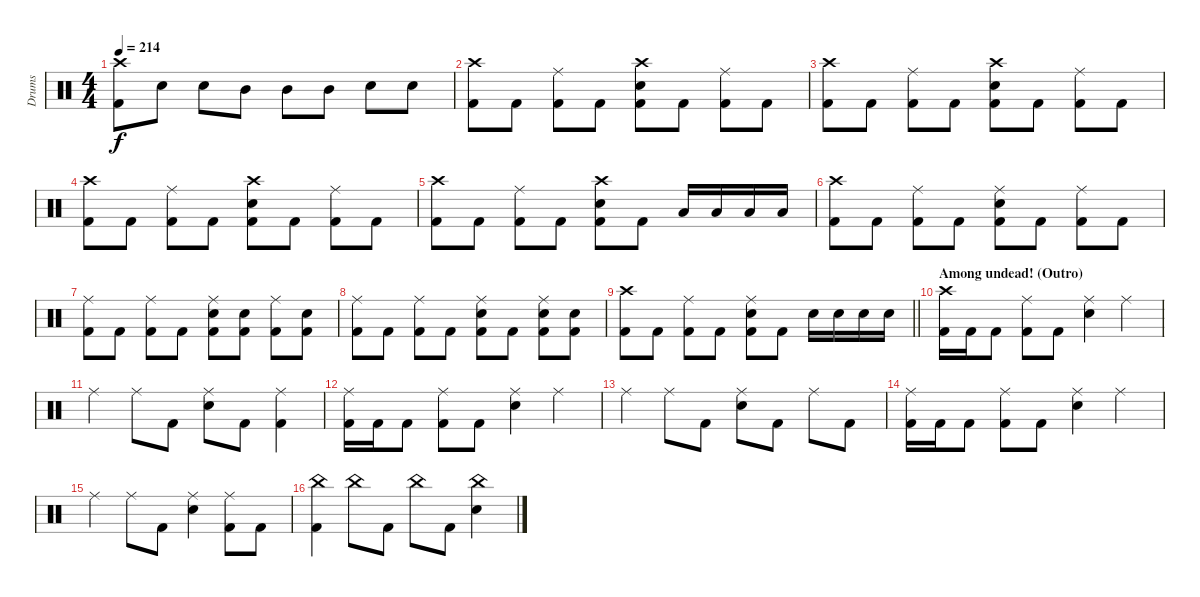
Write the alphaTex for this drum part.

\track ("Drums" "Drums") {instrument percussion}
\staff {score}
\articulation defaults
\ts (4 4)
\tempo 214
\clef neutral
\ks c
("Crash high (hit)" "Kick (hit) 2").8{dy f} "Snare (hit) 2".8 "Snare (hit) 2".8 "Mid Tom (hit)".8 "Mid Tom (hit)".8 "Mid Tom (hit)".8 "Snare (hit) 2".8 "Snare (hit) 2".8 |
("Crash high (hit)" "Kick (hit) 2").8 "Kick (hit) 2".8 ("Ride (middle)" "Kick (hit) 2").8 "Kick (hit) 2".8 ("Crash high (hit)" "Snare (hit) 2" "Kick (hit) 2").8 "Kick (hit) 2".8 ("Ride (middle)" "Kick (hit) 2").8 "Kick (hit) 2".8 |
("Crash high (hit)" "Kick (hit) 2").8 "Kick (hit) 2".8 ("Ride (middle)" "Kick (hit) 2").8 "Kick (hit) 2".8 ("Crash high (hit)" "Snare (hit) 2" "Kick (hit) 2").8 "Kick (hit) 2".8 ("Ride (middle)" "Kick (hit) 2").8 "Kick (hit) 2".8 |
("Crash high (hit)" "Kick (hit) 2").8 "Kick (hit) 2".8 ("Ride (middle)" "Kick (hit) 2").8 "Kick (hit) 2".8 ("Crash high (hit)" "Snare (hit) 2" "Kick (hit) 2").8 "Kick (hit) 2".8 ("Ride (middle)" "Kick (hit) 2").8 "Kick (hit) 2".8 |
("Crash high (hit)" "Kick (hit) 2").8 "Kick (hit) 2".8 ("Ride (middle)" "Kick (hit) 2").8 "Kick (hit) 2".8 ("Crash high (hit)" "Snare (hit) 2" "Kick (hit) 2").8 "Kick (hit) 2".8 "Low Tom (hit)".16 "Low Tom (hit)".16 "Low Tom (hit)".16 "Low Tom (hit)".16 |
("Crash high (hit)" "Kick (hit) 2").8 "Kick (hit) 2".8 ("Ride (middle)" "Kick (hit) 2").8 "Kick (hit) 2".8 ("Ride (middle)" "Snare (hit) 2" "Kick (hit) 2").8 "Kick (hit) 2".8 ("Ride (middle)" "Kick (hit) 2").8 "Kick (hit) 2".8 |
("Ride (middle)" "Kick (hit) 2").8 "Kick (hit) 2".8 ("Ride (middle)" "Kick (hit) 2").8 "Kick (hit) 2".8 ("Ride (middle)" "Snare (hit) 2" "Kick (hit) 2").8 ("Snare (hit) 2" "Kick (hit) 2").8 ("Ride (middle)" "Kick (hit) 2").8 ("Snare (hit) 2" "Kick (hit) 2").8 |
("Ride (middle)" "Kick (hit) 2").8 "Kick (hit) 2".8 ("Ride (middle)" "Kick (hit) 2").8 "Kick (hit) 2".8 ("Ride (middle)" "Snare (hit) 2" "Kick (hit) 2").8 "Kick (hit) 2".8 ("Ride (middle)" "Snare (hit) 2" "Kick (hit) 2").8 ("Snare (hit) 2" "Kick (hit) 2").8 |
\barLineRight lightlight
("Crash high (hit)" "Kick (hit) 2").8 "Kick (hit) 2".8 ("Ride (middle)" "Kick (hit) 2").8 "Kick (hit) 2".8 ("Ride (middle)" "Snare (hit) 2" "Kick (hit) 2").8 "Kick (hit) 2".8 "Snare (hit) 2".16 "Snare (hit) 2".16 "Snare (hit) 2".16 "Snare (hit) 2".16 |
\section ("" "Among undead! (Outro)")
("Crash high (hit)" "Kick (hit) 2").16 "Kick (hit) 2".16 "Kick (hit) 2".8 ("Ride (middle)" "Kick (hit) 2").8 "Kick (hit) 2".8 ("Ride (middle)" "Snare (hit) 2").4 "Ride (middle)".4 |
"Ride (middle)".4 "Ride (middle)".8 "Kick (hit) 2".8 ("Ride (middle)" "Snare (hit) 2").8 "Kick (hit) 2".8 ("Ride (middle)" "Kick (hit) 2").4 |
("Ride (middle)" "Kick (hit) 2").16 "Kick (hit) 2".16 "Kick (hit) 2".8 ("Ride (middle)" "Kick (hit) 2").8 "Kick (hit) 2".8 ("Ride (middle)" "Snare (hit) 2").4 "Ride (middle)".4 |
"Ride (middle)".4 "Ride (middle)".8 "Kick (hit) 2".8 ("Ride (middle)" "Snare (hit) 2").8 "Kick (hit) 2".8 "Ride (middle)".8 "Kick (hit) 2".8 |
("Ride (middle)" "Kick (hit) 2").16 "Kick (hit) 2".16 "Kick (hit) 2".8 ("Ride (middle)" "Kick (hit) 2").8 "Kick (hit) 2".8 ("Ride (middle)" "Snare (hit) 2").4 "Ride (middle)".4 |
"Ride (middle)".4 "Ride (middle)".8 "Kick (hit) 2".8 ("Ride (middle)" "Snare (hit) 2").4 ("Ride (middle)" "Kick (hit) 2").8 "Kick (hit) 2".8 |
("China (hit)" "Kick (hit) 2").4 "China (hit)".8 "Kick (hit) 2".8 "China (hit)".8 "Kick (hit) 2".8 ("China (hit)" "Snare (hit) 2").4
